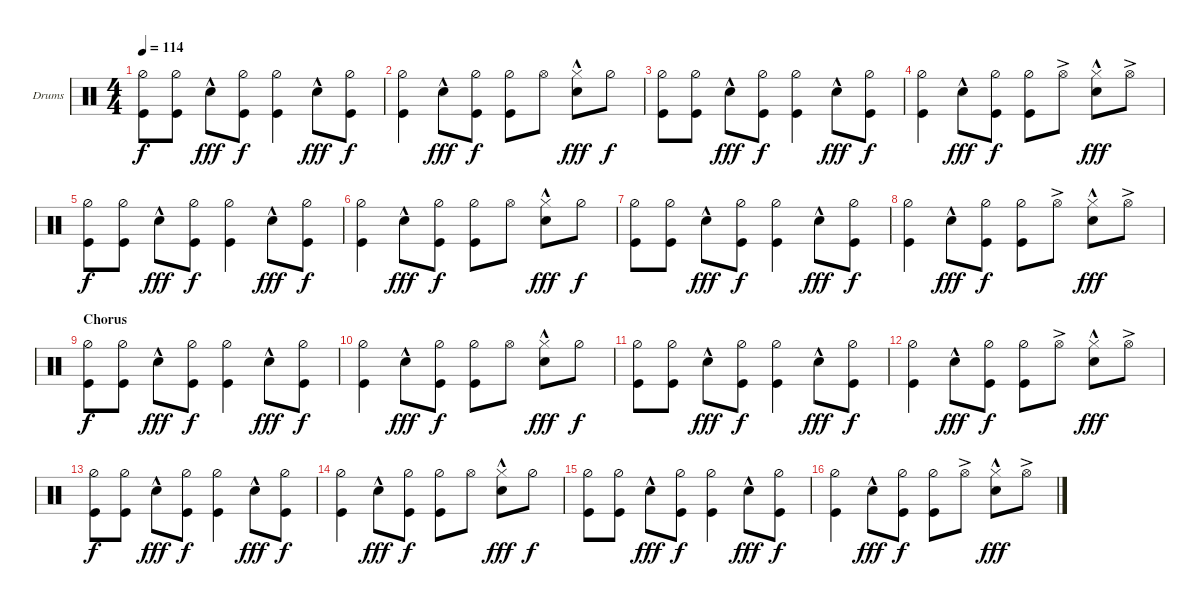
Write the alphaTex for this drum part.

\defaultSystemsLayout 4
\bracketExtendMode groupsimilarinstruments
\firstSystemTrackNameOrientation horizontal
\otherSystemsTrackNameOrientation horizontal
\track ("Drumkit" "Drums") {instrument percussion}
\staff {score}
\articulation defaults
\ts (4 4)
\tempo 114
\clef neutral
\ks c
("Hi-Hat (half)" "Kick (hit)").8{dy f} ("Hi-Hat (half)" "Kick (hit)").8 "Snare (hit) 2"{hac}.8{dy fff} ("Kick (hit)" "Hi-Hat (half)").8{dy f} ("Kick (hit)" "Hi-Hat (half)").4 "Snare (hit) 2"{hac}.8{dy fff} ("Kick (hit)" "Hi-Hat (half)").8{dy f} |
("Kick (hit)" "Hi-Hat (half)").4 "Snare (hit) 2"{hac}.8{dy fff} ("Kick (hit)" "Hi-Hat (half)").8{dy f} ("Kick (hit)" "Hi-Hat (half)").8 "Hi-Hat (open)".8 ("Hi-Hat (closed)" "Snare (hit) 2"{hac}).8{dy fff} "Hi-Hat (half)".8{dy f} |
("Hi-Hat (half)" "Kick (hit)").8 ("Hi-Hat (half)" "Kick (hit)").8 "Snare (hit) 2"{hac}.8{dy fff} ("Kick (hit)" "Hi-Hat (half)").8{dy f} ("Kick (hit)" "Hi-Hat (half)").4 "Snare (hit) 2"{hac}.8{dy fff} ("Kick (hit)" "Hi-Hat (half)").8{dy f} |
("Kick (hit)" "Hi-Hat (half)").4 "Snare (hit) 2"{hac}.8{dy fff} ("Kick (hit)" "Hi-Hat (half)").8{dy f} ("Kick (hit)" "Hi-Hat (half)").8 "Hi-Hat (open)"{ac}.8 ("Snare (hit) 2"{hac} "Hi-Hat (closed)").8{dy fff} "Hi-Hat (open)"{ac}.8 |
("Hi-Hat (half)" "Kick (hit)").8{dy f} ("Hi-Hat (half)" "Kick (hit)").8 "Snare (hit) 2"{hac}.8{dy fff} ("Kick (hit)" "Hi-Hat (half)").8{dy f} ("Kick (hit)" "Hi-Hat (half)").4 "Snare (hit) 2"{hac}.8{dy fff} ("Kick (hit)" "Hi-Hat (half)").8{dy f} |
("Kick (hit)" "Hi-Hat (half)").4 "Snare (hit) 2"{hac}.8{dy fff} ("Kick (hit)" "Hi-Hat (half)").8{dy f} ("Kick (hit)" "Hi-Hat (half)").8 "Hi-Hat (open)".8 ("Hi-Hat (closed)" "Snare (hit) 2"{hac}).8{dy fff} "Hi-Hat (half)".8{dy f} |
("Hi-Hat (half)" "Kick (hit)").8 ("Hi-Hat (half)" "Kick (hit)").8 "Snare (hit) 2"{hac}.8{dy fff} ("Kick (hit)" "Hi-Hat (half)").8{dy f} ("Kick (hit)" "Hi-Hat (half)").4 "Snare (hit) 2"{hac}.8{dy fff} ("Kick (hit)" "Hi-Hat (half)").8{dy f} |
("Kick (hit)" "Hi-Hat (half)").4 "Snare (hit) 2"{hac}.8{dy fff} ("Kick (hit)" "Hi-Hat (half)").8{dy f} ("Kick (hit)" "Hi-Hat (half)").8 "Hi-Hat (open)"{ac}.8 ("Snare (hit) 2"{hac} "Hi-Hat (closed)").8{dy fff} "Hi-Hat (open)"{ac}.8 |
\section ("" "Chorus")
("Hi-Hat (half)" "Kick (hit)").8{dy f} ("Hi-Hat (half)" "Kick (hit)").8 "Snare (hit) 2"{hac}.8{dy fff} ("Kick (hit)" "Hi-Hat (half)").8{dy f} ("Kick (hit)" "Hi-Hat (half)").4 "Snare (hit) 2"{hac}.8{dy fff} ("Kick (hit)" "Hi-Hat (half)").8{dy f} |
("Kick (hit)" "Hi-Hat (half)").4 "Snare (hit) 2"{hac}.8{dy fff} ("Kick (hit)" "Hi-Hat (half)").8{dy f} ("Kick (hit)" "Hi-Hat (half)").8 "Hi-Hat (open)".8 ("Hi-Hat (closed)" "Snare (hit) 2"{hac}).8{dy fff} "Hi-Hat (half)".8{dy f} |
("Hi-Hat (half)" "Kick (hit)").8 ("Hi-Hat (half)" "Kick (hit)").8 "Snare (hit) 2"{hac}.8{dy fff} ("Kick (hit)" "Hi-Hat (half)").8{dy f} ("Kick (hit)" "Hi-Hat (half)").4 "Snare (hit) 2"{hac}.8{dy fff} ("Kick (hit)" "Hi-Hat (half)").8{dy f} |
("Kick (hit)" "Hi-Hat (half)").4 "Snare (hit) 2"{hac}.8{dy fff} ("Kick (hit)" "Hi-Hat (half)").8{dy f} ("Kick (hit)" "Hi-Hat (half)").8 "Hi-Hat (open)"{ac}.8 ("Snare (hit) 2"{hac} "Hi-Hat (closed)").8{dy fff} "Hi-Hat (open)"{ac}.8 |
("Hi-Hat (half)" "Kick (hit)").8{dy f} ("Hi-Hat (half)" "Kick (hit)").8 "Snare (hit) 2"{hac}.8{dy fff} ("Kick (hit)" "Hi-Hat (half)").8{dy f} ("Kick (hit)" "Hi-Hat (half)").4 "Snare (hit) 2"{hac}.8{dy fff} ("Kick (hit)" "Hi-Hat (half)").8{dy f} |
("Kick (hit)" "Hi-Hat (half)").4 "Snare (hit) 2"{hac}.8{dy fff} ("Kick (hit)" "Hi-Hat (half)").8{dy f} ("Kick (hit)" "Hi-Hat (half)").8 "Hi-Hat (open)".8 ("Hi-Hat (closed)" "Snare (hit) 2"{hac}).8{dy fff} "Hi-Hat (half)".8{dy f} |
("Hi-Hat (half)" "Kick (hit)").8 ("Hi-Hat (half)" "Kick (hit)").8 "Snare (hit) 2"{hac}.8{dy fff} ("Kick (hit)" "Hi-Hat (half)").8{dy f} ("Kick (hit)" "Hi-Hat (half)").4 "Snare (hit) 2"{hac}.8{dy fff} ("Kick (hit)" "Hi-Hat (half)").8{dy f} |
("Kick (hit)" "Hi-Hat (half)").4 "Snare (hit) 2"{hac}.8{dy fff} ("Kick (hit)" "Hi-Hat (half)").8{dy f} ("Kick (hit)" "Hi-Hat (half)").8 "Hi-Hat (open)"{ac}.8 ("Snare (hit) 2"{hac} "Hi-Hat (closed)").8{dy fff} "Hi-Hat (open)"{ac}.8
